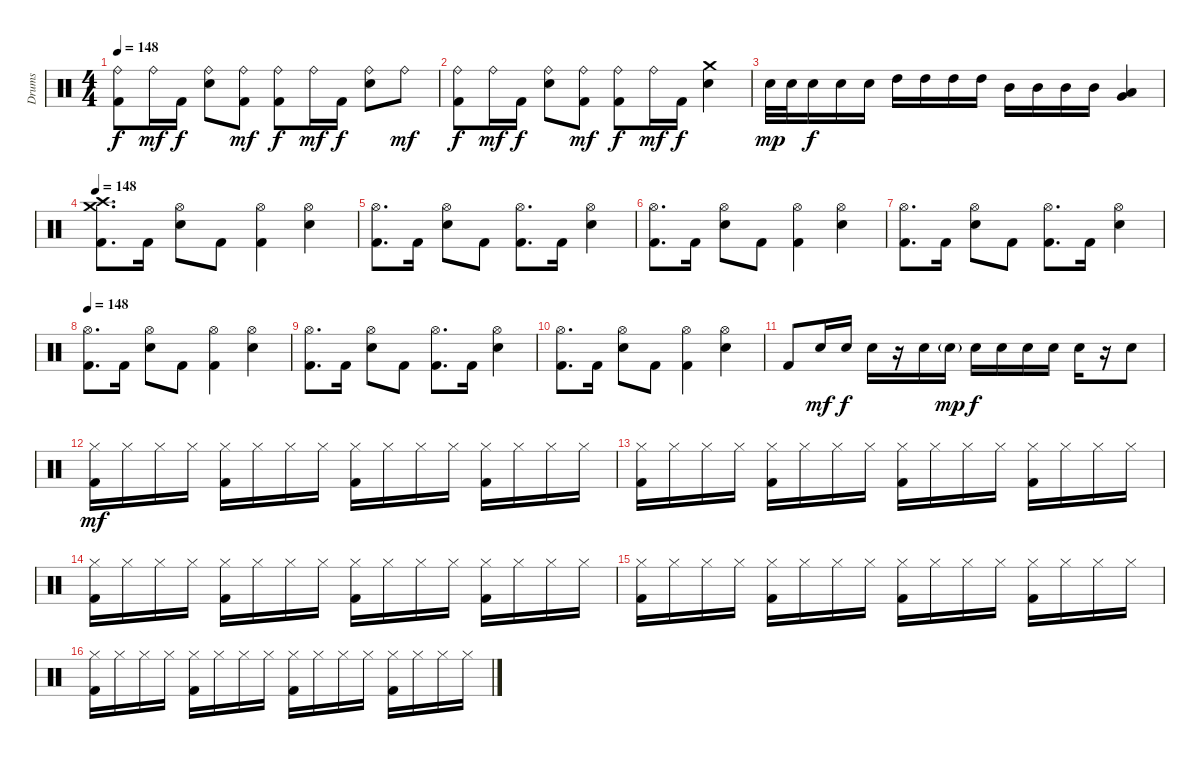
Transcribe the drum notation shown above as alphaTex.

\track ("Drums" "Drums") {instrument percussion}
\staff {score}
\articulation defaults
\ts (4 4)
\tempo 148
\clef neutral
\ks c
("Ride (bell)" "Kick (hit) 2").8{dy f} "Ride (bell)".16{dy mf} "Kick (hit) 2".16{dy f} ("Ride (bell)" "Snare (hit) 2").8 ("Ride (bell)" "Kick (hit) 2").8{dy mf} ("Ride (bell)" "Kick (hit) 2").8{dy f} "Ride (bell)".16{dy mf} "Kick (hit) 2".16{dy f} ("Ride (bell)" "Snare (hit) 2").8 "Ride (bell)".8{dy mf} |
("Ride (bell)" "Kick (hit) 2").8{dy f} "Ride (bell)".16{dy mf} "Kick (hit) 2".16{dy f} ("Ride (bell)" "Snare (hit) 2").8 ("Ride (bell)" "Kick (hit) 2").8{dy mf} ("Ride (bell)" "Kick (hit) 2").8{dy f} "Ride (bell)".16{dy mf} "Kick (hit) 2".16{dy f} ("Crash medium (hit)" "Snare (hit) 2").4 |
"Snare (hit) 2".32{dy mp} "Snare (hit) 2".32 "Snare (hit) 2".16{dy f} "Snare (hit) 2".16 "Snare (hit) 2".16 "High Tom (hit)".16 "High Tom (hit)".16 "High Tom (hit)".16 "High Tom (hit)".16 "Mid Tom (hit)".16 "Mid Tom (hit)".16 "Mid Tom (hit)".16 "Mid Tom (hit)".16 ("Low Tom (hit)" "Very Low Tom (hit)").4 |
\tempo 148
("Crash high (hit)" "Crash medium (hit)" "Kick (hit) 2").8{d} "Kick (hit) 2".16 ("Hi-Hat (open)" "Snare (hit) 2").8 "Kick (hit) 2".8 ("Hi-Hat (open)" "Kick (hit) 2").4 ("Hi-Hat (open)" "Snare (hit) 2").4 |
("Hi-Hat (open)" "Kick (hit) 2").8{d} "Kick (hit) 2".16 ("Hi-Hat (open)" "Snare (hit) 2").8 "Kick (hit) 2".8 ("Hi-Hat (open)" "Kick (hit) 2").8{d} "Kick (hit) 2".16 ("Hi-Hat (open)" "Snare (hit) 2").4 |
("Hi-Hat (open)" "Kick (hit) 2").8{d} "Kick (hit) 2".16 ("Hi-Hat (open)" "Snare (hit) 2").8 "Kick (hit) 2".8 ("Hi-Hat (open)" "Kick (hit) 2").4 ("Hi-Hat (open)" "Snare (hit) 2").4 |
("Hi-Hat (open)" "Kick (hit) 2").8{d} "Kick (hit) 2".16 ("Hi-Hat (open)" "Snare (hit) 2").8 "Kick (hit) 2".8 ("Hi-Hat (open)" "Kick (hit) 2").8{d} "Kick (hit) 2".16 ("Hi-Hat (open)" "Snare (hit) 2").4 |
\tempo 148
("Hi-Hat (open)" "Kick (hit) 2").8{d} "Kick (hit) 2".16 ("Hi-Hat (open)" "Snare (hit) 2").8 "Kick (hit) 2".8 ("Hi-Hat (open)" "Kick (hit) 2").4 ("Hi-Hat (open)" "Snare (hit) 2").4 |
("Hi-Hat (open)" "Kick (hit) 2").8{d} "Kick (hit) 2".16 ("Hi-Hat (open)" "Snare (hit) 2").8 "Kick (hit) 2".8 ("Hi-Hat (open)" "Kick (hit) 2").8{d} "Kick (hit) 2".16 ("Hi-Hat (open)" "Snare (hit) 2").4 |
("Hi-Hat (open)" "Kick (hit) 2").8{d} "Kick (hit) 2".16 ("Hi-Hat (open)" "Snare (hit) 2").8 "Kick (hit) 2".8 ("Hi-Hat (open)" "Kick (hit) 2").4 ("Hi-Hat (open)" "Snare (hit) 2").4 |
"Kick (hit) 2".8 "Snare (hit) 2".16{dy mf} "Snare (hit) 2".16{dy f} "Snare (hit) 2".16 r.16 "Snare (hit) 2".16 "Snare (hit) 2"{g}.16{dy mp} "Snare (hit) 2".16{dy f} "Snare (hit) 2".16 "Snare (hit) 2".16 "Snare (hit) 2".16 "Snare (hit) 2".16 r.16 "Snare (hit) 2".8 |
("Hi-Hat (closed)" "Kick (hit) 2").16{dy mf} "Hi-Hat (closed)".16 "Hi-Hat (closed)".16 "Hi-Hat (closed)".16 ("Hi-Hat (closed)" "Kick (hit) 2").16 "Hi-Hat (closed)".16 "Hi-Hat (closed)".16 "Hi-Hat (closed)".16 ("Hi-Hat (closed)" "Kick (hit) 2").16 "Hi-Hat (closed)".16 "Hi-Hat (closed)".16 "Hi-Hat (closed)".16 ("Hi-Hat (closed)" "Kick (hit) 2").16 "Hi-Hat (closed)".16 "Hi-Hat (closed)".16 "Hi-Hat (closed)".16 |
("Hi-Hat (closed)" "Kick (hit) 2").16 "Hi-Hat (closed)".16 "Hi-Hat (closed)".16 "Hi-Hat (closed)".16 ("Hi-Hat (closed)" "Kick (hit) 2").16 "Hi-Hat (closed)".16 "Hi-Hat (closed)".16 "Hi-Hat (closed)".16 ("Hi-Hat (closed)" "Kick (hit) 2").16 "Hi-Hat (closed)".16 "Hi-Hat (closed)".16 "Hi-Hat (closed)".16 ("Hi-Hat (closed)" "Kick (hit) 2").16 "Hi-Hat (closed)".16 "Hi-Hat (closed)".16 "Hi-Hat (closed)".16 |
("Hi-Hat (closed)" "Kick (hit) 2").16 "Hi-Hat (closed)".16 "Hi-Hat (closed)".16 "Hi-Hat (closed)".16 ("Hi-Hat (closed)" "Kick (hit) 2").16 "Hi-Hat (closed)".16 "Hi-Hat (closed)".16 "Hi-Hat (closed)".16 ("Hi-Hat (closed)" "Kick (hit) 2").16 "Hi-Hat (closed)".16 "Hi-Hat (closed)".16 "Hi-Hat (closed)".16 ("Hi-Hat (closed)" "Kick (hit) 2").16 "Hi-Hat (closed)".16 "Hi-Hat (closed)".16 "Hi-Hat (closed)".16 |
("Hi-Hat (closed)" "Kick (hit) 2").16 "Hi-Hat (closed)".16 "Hi-Hat (closed)".16 "Hi-Hat (closed)".16 ("Hi-Hat (closed)" "Kick (hit) 2").16 "Hi-Hat (closed)".16 "Hi-Hat (closed)".16 "Hi-Hat (closed)".16 ("Hi-Hat (closed)" "Kick (hit) 2").16 "Hi-Hat (closed)".16 "Hi-Hat (closed)".16 "Hi-Hat (closed)".16 ("Hi-Hat (closed)" "Kick (hit) 2").16 "Hi-Hat (closed)".16 "Hi-Hat (closed)".16 "Hi-Hat (closed)".16 |
("Hi-Hat (closed)" "Kick (hit) 2").16 "Hi-Hat (closed)".16 "Hi-Hat (closed)".16 "Hi-Hat (closed)".16 ("Hi-Hat (closed)" "Kick (hit) 2").16 "Hi-Hat (closed)".16 "Hi-Hat (closed)".16 "Hi-Hat (closed)".16 ("Hi-Hat (closed)" "Kick (hit) 2").16 "Hi-Hat (closed)".16 "Hi-Hat (closed)".16 "Hi-Hat (closed)".16 ("Hi-Hat (closed)" "Kick (hit) 2").16 "Hi-Hat (closed)".16 "Hi-Hat (closed)".16 "Hi-Hat (closed)".16
